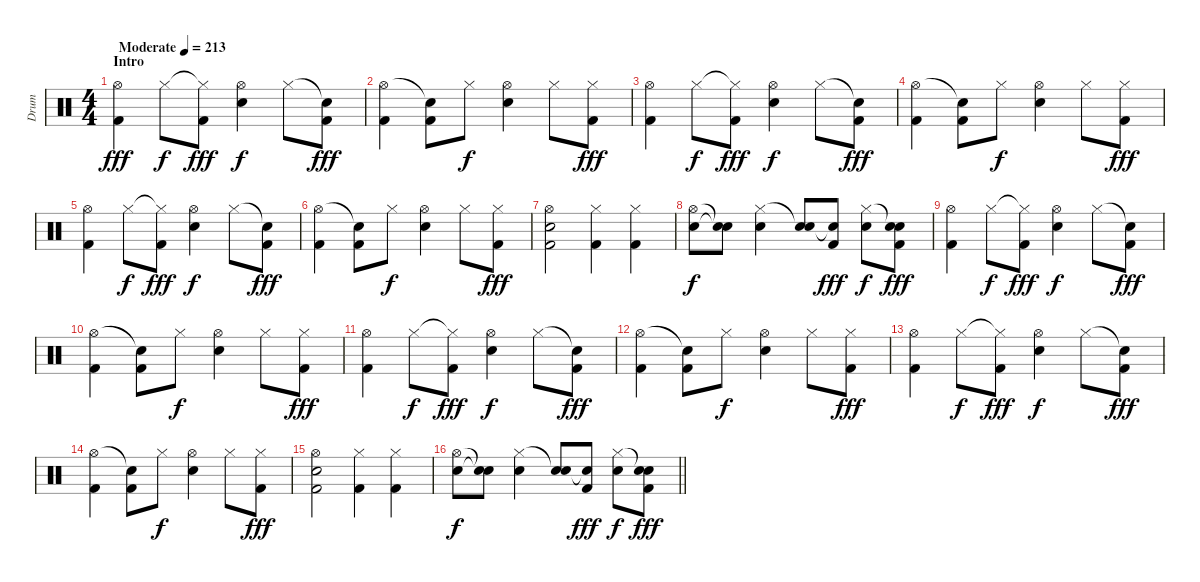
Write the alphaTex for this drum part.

\track ("Drum" "Drum") {instrument percussion}
\staff {score}
\articulation defaults
\ts (4 4)
\section ("" "Intro")
\tempo (213 "Moderate")
\clef neutral
\ks c
("Hi-Hat (open)" "Kick (hit) 2").4{dy fff} "Hi-Hat (closed)".8{dy f} ("Hi-Hat (closed)"{t} "Kick (hit) 2").8{dy fff} ("Hi-Hat (open)" "Snare (hit) 2").4{dy f} "Hi-Hat (closed)".8 ("Snare (hit)"{t} "Kick (hit) 2").8{dy fff} |
("Hi-Hat (open)" "Kick (hit) 2").4 ("Snare (hit)"{t} "Kick (hit) 2").8 "Hi-Hat (closed)".8{dy f} ("Hi-Hat (open)" "Snare (hit) 2").4 "Hi-Hat (closed)".8 ("Hi-Hat (closed)" "Kick (hit) 2").8{dy fff} |
("Hi-Hat (open)" "Kick (hit) 2").4 "Hi-Hat (closed)".8{dy f} ("Hi-Hat (closed)"{t} "Kick (hit) 2").8{dy fff} ("Hi-Hat (open)" "Snare (hit) 2").4{dy f} "Hi-Hat (closed)".8 ("Snare (hit)"{t} "Kick (hit) 2").8{dy fff} |
("Hi-Hat (open)" "Kick (hit) 2").4 ("Snare (hit)"{t} "Kick (hit) 2").8 "Hi-Hat (closed)".8{dy f} ("Hi-Hat (open)" "Snare (hit) 2").4 "Hi-Hat (closed)".8 ("Hi-Hat (closed)" "Kick (hit) 2").8{dy fff} |
("Hi-Hat (open)" "Kick (hit) 2").4 "Hi-Hat (closed)".8{dy f} ("Hi-Hat (closed)"{t} "Kick (hit) 2").8{dy fff} ("Hi-Hat (open)" "Snare (hit) 2").4{dy f} "Hi-Hat (closed)".8 ("Snare (hit)"{t} "Kick (hit) 2").8{dy fff} |
("Hi-Hat (open)" "Kick (hit) 2").4 ("Snare (hit)"{t} "Kick (hit) 2").8 "Hi-Hat (closed)".8{dy f} ("Hi-Hat (open)" "Snare (hit) 2").4 "Hi-Hat (closed)".8 ("Hi-Hat (closed)" "Kick (hit) 2").8{dy fff} |
("Hi-Hat (open)" "Snare (hit) 2" "Kick (hit) 2").2 ("Hi-Hat (closed)" "Kick (hit) 2").4 ("Hi-Hat (closed)" "Kick (hit) 2").4 |
("Hi-Hat (open)" "Snare (hit) 2").8{dy f} ("Snare (hit)"{t} "Snare (hit)"{t}).8 ("Hi-Hat (closed)" "Snare (hit) 2").4 ("Snare (hit)"{t} "Snare (hit) 2").8 ("Snare (hit)"{t} "Kick (hit) 2").8{dy fff} ("Hi-Hat (closed)" "Snare (hit) 2").8{dy f} ("Snare (hit)"{t} "Snare (hit) 2" "Kick (hit) 2").8{dy fff} |
("Hi-Hat (open)" "Kick (hit) 2").4 "Hi-Hat (closed)".8{dy f} ("Hi-Hat (closed)"{t} "Kick (hit) 2").8{dy fff} ("Hi-Hat (open)" "Snare (hit) 2").4{dy f} "Hi-Hat (closed)".8 ("Snare (hit)"{t} "Kick (hit) 2").8{dy fff} |
("Hi-Hat (open)" "Kick (hit) 2").4 ("Snare (hit)"{t} "Kick (hit) 2").8 "Hi-Hat (closed)".8{dy f} ("Hi-Hat (open)" "Snare (hit) 2").4 "Hi-Hat (closed)".8 ("Hi-Hat (closed)" "Kick (hit) 2").8{dy fff} |
("Hi-Hat (open)" "Kick (hit) 2").4 "Hi-Hat (closed)".8{dy f} ("Hi-Hat (closed)"{t} "Kick (hit) 2").8{dy fff} ("Hi-Hat (open)" "Snare (hit) 2").4{dy f} "Hi-Hat (closed)".8 ("Snare (hit)"{t} "Kick (hit) 2").8{dy fff} |
("Hi-Hat (open)" "Kick (hit) 2").4 ("Snare (hit)"{t} "Kick (hit) 2").8 "Hi-Hat (closed)".8{dy f} ("Hi-Hat (open)" "Snare (hit) 2").4 "Hi-Hat (closed)".8 ("Hi-Hat (closed)" "Kick (hit) 2").8{dy fff} |
("Hi-Hat (open)" "Kick (hit) 2").4 "Hi-Hat (closed)".8{dy f} ("Hi-Hat (closed)"{t} "Kick (hit) 2").8{dy fff} ("Hi-Hat (open)" "Snare (hit) 2").4{dy f} "Hi-Hat (closed)".8 ("Snare (hit)"{t} "Kick (hit) 2").8{dy fff} |
("Hi-Hat (open)" "Kick (hit) 2").4 ("Snare (hit)"{t} "Kick (hit) 2").8 "Hi-Hat (closed)".8{dy f} ("Hi-Hat (open)" "Snare (hit) 2").4 "Hi-Hat (closed)".8 ("Hi-Hat (closed)" "Kick (hit) 2").8{dy fff} |
("Hi-Hat (open)" "Snare (hit) 2" "Kick (hit) 2").2 ("Hi-Hat (closed)" "Kick (hit) 2").4 ("Hi-Hat (closed)" "Kick (hit) 2").4 |
\barLineRight lightlight
("Hi-Hat (open)" "Snare (hit) 2").8{dy f} ("Snare (hit)"{t} "Snare (hit)"{t}).8 ("Hi-Hat (closed)" "Snare (hit) 2").4 ("Snare (hit)"{t} "Snare (hit) 2").8 ("Snare (hit)"{t} "Kick (hit) 2").8{dy fff} ("Hi-Hat (closed)" "Snare (hit) 2").8{dy f} ("Snare (hit)"{t} "Snare (hit) 2" "Kick (hit) 2").8{dy fff}
